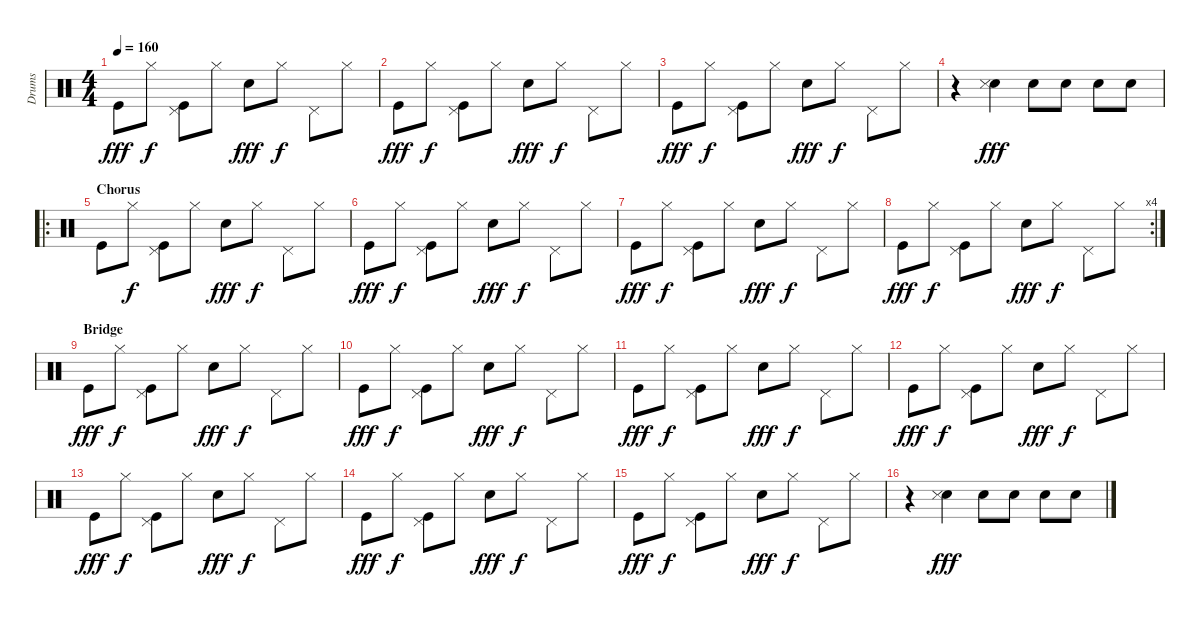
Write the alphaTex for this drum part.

\track ("Drums" "Drums") {instrument percussion}
\staff {score}
\articulation defaults
\ts (4 4)
\tempo 160
\clef neutral
\ks c "Kick (hit)".8{dy fff} "Hi-Hat (closed)".8{dy f}
("Kick (hit)" "Pedal Hi-Hat (hit)").8 "Hi-Hat (closed)".8 "Snare (hit) 2".8{dy fff} "Hi-Hat (closed)".8{dy f} "Pedal Hi-Hat (hit)".8 "Hi-Hat (closed)".8 |
"Kick (hit)".8{dy fff} "Hi-Hat (closed)".8{dy f} ("Kick (hit)" "Pedal Hi-Hat (hit)").8 "Hi-Hat (closed)".8 "Snare (hit) 2".8{dy fff} "Hi-Hat (closed)".8{dy f} "Pedal Hi-Hat (hit)".8 "Hi-Hat (closed)".8 |
"Kick (hit)".8{dy fff} "Hi-Hat (closed)".8{dy f} ("Kick (hit)" "Pedal Hi-Hat (hit)").8 "Hi-Hat (closed)".8 "Snare (hit) 2".8{dy fff} "Hi-Hat (closed)".8{dy f} "Pedal Hi-Hat (hit)".8 "Hi-Hat (closed)".8 |
r.4 ("Snare (hit) 2" "Snare (side stick) 3").4{dy fff} "Snare (hit) 2".8 "Snare (hit) 2".8 "Snare (hit) 2".8 "Snare (hit) 2".8 |
\ro
\section ("" "Chorus")
"Kick (hit)".8 "Hi-Hat (closed)".8{dy f} ("Kick (hit)" "Pedal Hi-Hat (hit)").8 "Hi-Hat (closed)".8 "Snare (hit) 2".8{dy fff} "Hi-Hat (closed)".8{dy f} "Pedal Hi-Hat (hit)".8 "Hi-Hat (closed)".8 |
"Kick (hit)".8{dy fff} "Hi-Hat (closed)".8{dy f} ("Kick (hit)" "Pedal Hi-Hat (hit)").8 "Hi-Hat (closed)".8 "Snare (hit) 2".8{dy fff} "Hi-Hat (closed)".8{dy f} "Pedal Hi-Hat (hit)".8 "Hi-Hat (closed)".8 |
"Kick (hit)".8{dy fff} "Hi-Hat (closed)".8{dy f} ("Kick (hit)" "Pedal Hi-Hat (hit)").8 "Hi-Hat (closed)".8 "Snare (hit) 2".8{dy fff} "Hi-Hat (closed)".8{dy f} "Pedal Hi-Hat (hit)".8 "Hi-Hat (closed)".8 |
\rc 4 "Kick (hit)".8{dy fff} "Hi-Hat (closed)".8{dy f}
("Kick (hit)" "Pedal Hi-Hat (hit)").8 "Hi-Hat (closed)".8 "Snare (hit) 2".8{dy fff} "Hi-Hat (closed)".8{dy f} "Pedal Hi-Hat (hit)".8 "Hi-Hat (closed)".8 |
\section ("" "Bridge")
"Kick (hit)".8{dy fff} "Hi-Hat (closed)".8{dy f} ("Kick (hit)" "Pedal Hi-Hat (hit)").8 "Hi-Hat (closed)".8 "Snare (hit) 2".8{dy fff} "Hi-Hat (closed)".8{dy f} "Pedal Hi-Hat (hit)".8 "Hi-Hat (closed)".8 |
"Kick (hit)".8{dy fff} "Hi-Hat (closed)".8{dy f} ("Kick (hit)" "Pedal Hi-Hat (hit)").8 "Hi-Hat (closed)".8 "Snare (hit) 2".8{dy fff} "Hi-Hat (closed)".8{dy f} "Pedal Hi-Hat (hit)".8 "Hi-Hat (closed)".8 |
"Kick (hit)".8{dy fff} "Hi-Hat (closed)".8{dy f} ("Kick (hit)" "Pedal Hi-Hat (hit)").8 "Hi-Hat (closed)".8 "Snare (hit) 2".8{dy fff} "Hi-Hat (closed)".8{dy f} "Pedal Hi-Hat (hit)".8 "Hi-Hat (closed)".8 |
"Kick (hit)".8{dy fff} "Hi-Hat (closed)".8{dy f} ("Kick (hit)" "Pedal Hi-Hat (hit)").8 "Hi-Hat (closed)".8 "Snare (hit) 2".8{dy fff} "Hi-Hat (closed)".8{dy f} "Pedal Hi-Hat (hit)".8 "Hi-Hat (closed)".8 |
"Kick (hit)".8{dy fff} "Hi-Hat (closed)".8{dy f} ("Kick (hit)" "Pedal Hi-Hat (hit)").8 "Hi-Hat (closed)".8 "Snare (hit) 2".8{dy fff} "Hi-Hat (closed)".8{dy f} "Pedal Hi-Hat (hit)".8 "Hi-Hat (closed)".8 |
"Kick (hit)".8{dy fff} "Hi-Hat (closed)".8{dy f} ("Kick (hit)" "Pedal Hi-Hat (hit)").8 "Hi-Hat (closed)".8 "Snare (hit) 2".8{dy fff} "Hi-Hat (closed)".8{dy f} "Pedal Hi-Hat (hit)".8 "Hi-Hat (closed)".8 |
"Kick (hit)".8{dy fff} "Hi-Hat (closed)".8{dy f} ("Kick (hit)" "Pedal Hi-Hat (hit)").8 "Hi-Hat (closed)".8 "Snare (hit) 2".8{dy fff} "Hi-Hat (closed)".8{dy f} "Pedal Hi-Hat (hit)".8 "Hi-Hat (closed)".8 |
r.4 ("Snare (hit) 2" "Snare (side stick) 3").4{dy fff} "Snare (hit) 2".8 "Snare (hit) 2".8 "Snare (hit) 2".8 "Snare (hit) 2".8
